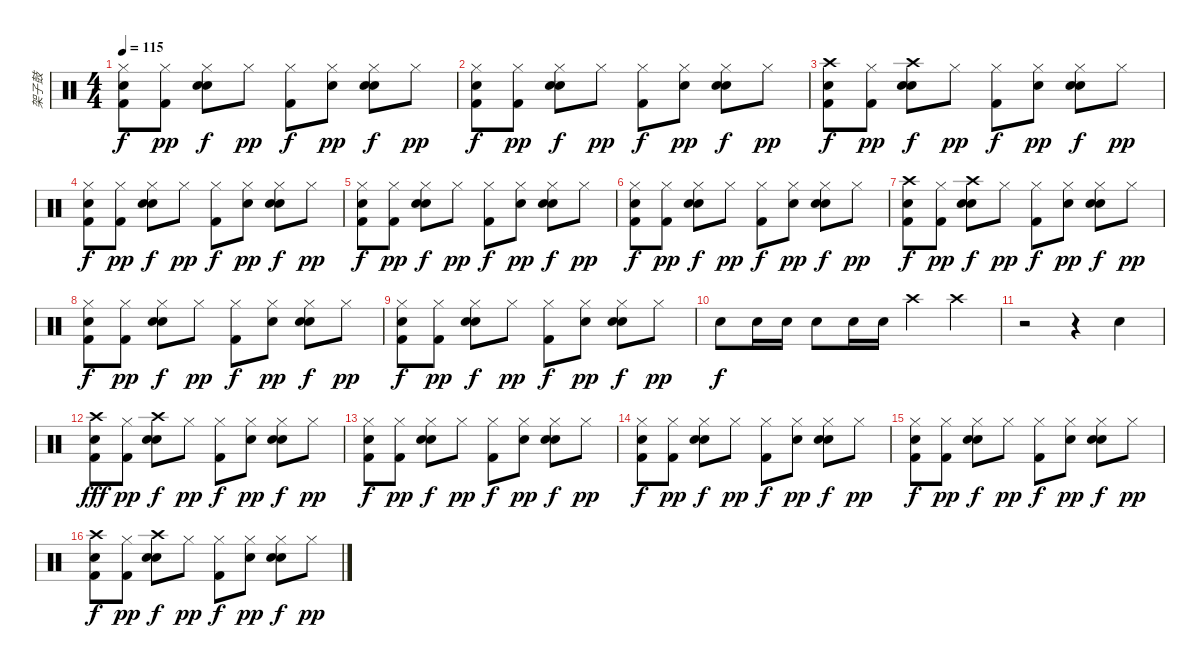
\track ("架子鼓" "架子鼓") {instrument percussion}
\staff {score}
\articulation defaults
\ts (4 4)
\tempo 115
\clef neutral
\ks c
("Hi-Hat (closed)" "Electric Snare (hit)" "Kick (hit) 2").8{dy f} ("Hi-Hat (closed)" "Kick (hit) 2").8{dy pp} ("Hi-Hat (closed)" "Snare (hit) 2" "Electric Snare (hit)").8{dy f} "Hi-Hat (closed)".8{dy pp} ("Hi-Hat (closed)" "Kick (hit) 2").8{dy f} ("Hi-Hat (closed)" "Snare (hit) 2").8{dy pp} ("Hi-Hat (closed)" "Snare (hit) 2" "Electric Snare (hit)").8{dy f} "Hi-Hat (closed)".8{dy pp} |
("Hi-Hat (closed)" "Electric Snare (hit)" "Kick (hit) 2").8{dy f} ("Hi-Hat (closed)" "Kick (hit) 2").8{dy pp} ("Hi-Hat (closed)" "Snare (hit) 2" "Electric Snare (hit)").8{dy f} "Hi-Hat (closed)".8{dy pp} ("Hi-Hat (closed)" "Kick (hit) 2").8{dy f} ("Hi-Hat (closed)" "Snare (hit) 2").8{dy pp} ("Hi-Hat (closed)" "Snare (hit) 2" "Electric Snare (hit)").8{dy f} "Hi-Hat (closed)".8{dy pp} |
("Crash high (hit)" "Electric Snare (hit)" "Kick (hit) 2").8{dy f} ("Hi-Hat (closed)" "Kick (hit) 2").8{dy pp} ("Crash high (hit)" "Snare (hit) 2" "Electric Snare (hit)").8{dy f} "Hi-Hat (closed)".8{dy pp} ("Hi-Hat (closed)" "Kick (hit) 2").8{dy f} ("Hi-Hat (closed)" "Snare (hit) 2").8{dy pp} ("Hi-Hat (closed)" "Snare (hit) 2" "Electric Snare (hit)").8{dy f} "Hi-Hat (closed)".8{dy pp} |
("Hi-Hat (closed)" "Electric Snare (hit)" "Kick (hit) 2").8{dy f} ("Hi-Hat (closed)" "Kick (hit) 2").8{dy pp} ("Hi-Hat (closed)" "Snare (hit) 2" "Electric Snare (hit)").8{dy f} "Hi-Hat (closed)".8{dy pp} ("Hi-Hat (closed)" "Kick (hit) 2").8{dy f} ("Hi-Hat (closed)" "Snare (hit) 2").8{dy pp} ("Hi-Hat (closed)" "Snare (hit) 2" "Electric Snare (hit)").8{dy f} "Hi-Hat (closed)".8{dy pp} |
("Hi-Hat (closed)" "Electric Snare (hit)" "Kick (hit) 2").8{dy f} ("Hi-Hat (closed)" "Kick (hit) 2").8{dy pp} ("Hi-Hat (closed)" "Snare (hit) 2" "Electric Snare (hit)").8{dy f} "Hi-Hat (closed)".8{dy pp} ("Hi-Hat (closed)" "Kick (hit) 2").8{dy f} ("Hi-Hat (closed)" "Snare (hit) 2").8{dy pp} ("Hi-Hat (closed)" "Snare (hit) 2" "Electric Snare (hit)").8{dy f} "Hi-Hat (closed)".8{dy pp} |
("Hi-Hat (closed)" "Electric Snare (hit)" "Kick (hit) 2").8{dy f} ("Hi-Hat (closed)" "Kick (hit) 2").8{dy pp} ("Hi-Hat (closed)" "Snare (hit) 2" "Electric Snare (hit)").8{dy f} "Hi-Hat (closed)".8{dy pp} ("Hi-Hat (closed)" "Kick (hit) 2").8{dy f} ("Hi-Hat (closed)" "Snare (hit) 2").8{dy pp} ("Hi-Hat (closed)" "Snare (hit) 2" "Electric Snare (hit)").8{dy f} "Hi-Hat (closed)".8{dy pp} |
("Crash high (hit)" "Electric Snare (hit)" "Kick (hit) 2").8{dy f} ("Hi-Hat (closed)" "Kick (hit) 2").8{dy pp} ("Crash high (hit)" "Snare (hit) 2" "Electric Snare (hit)").8{dy f} "Hi-Hat (closed)".8{dy pp} ("Hi-Hat (closed)" "Kick (hit) 2").8{dy f} ("Hi-Hat (closed)" "Snare (hit) 2").8{dy pp} ("Hi-Hat (closed)" "Snare (hit) 2" "Electric Snare (hit)").8{dy f} "Hi-Hat (closed)".8{dy pp} |
("Hi-Hat (closed)" "Electric Snare (hit)" "Kick (hit) 2").8{dy f} ("Hi-Hat (closed)" "Kick (hit) 2").8{dy pp} ("Hi-Hat (closed)" "Snare (hit) 2" "Electric Snare (hit)").8{dy f} "Hi-Hat (closed)".8{dy pp} ("Hi-Hat (closed)" "Kick (hit) 2").8{dy f} ("Hi-Hat (closed)" "Snare (hit) 2").8{dy pp} ("Hi-Hat (closed)" "Snare (hit) 2" "Electric Snare (hit)").8{dy f} "Hi-Hat (closed)".8{dy pp} |
("Hi-Hat (closed)" "Electric Snare (hit)" "Kick (hit) 2").8{dy f} ("Hi-Hat (closed)" "Kick (hit) 2").8{dy pp} ("Hi-Hat (closed)" "Snare (hit) 2" "Electric Snare (hit)").8{dy f} "Hi-Hat (closed)".8{dy pp} ("Hi-Hat (closed)" "Kick (hit) 2").8{dy f} ("Hi-Hat (closed)" "Snare (hit) 2").8{dy pp} ("Hi-Hat (closed)" "Snare (hit) 2" "Electric Snare (hit)").8{dy f} "Hi-Hat (closed)".8{dy pp} |
"Electric Snare (hit)".8{dy f} "Electric Snare (hit)".16 "Electric Snare (hit)".16 "Electric Snare (hit)".8 "Electric Snare (hit)".16 "Electric Snare (hit)".16 "Crash high (hit)".4 "Crash high (hit)".4 |
r.2 r.4 "Snare (hit) 2".4 |
("Crash high (hit)" "Electric Snare (hit)" "Kick (hit) 2").8{dy fff} ("Hi-Hat (closed)" "Kick (hit) 2").8{dy pp} ("Crash high (hit)" "Snare (hit) 2" "Electric Snare (hit)").8{dy f} "Hi-Hat (closed)".8{dy pp} ("Hi-Hat (closed)" "Kick (hit) 2").8{dy f} ("Hi-Hat (closed)" "Snare (hit) 2").8{dy pp} ("Hi-Hat (closed)" "Snare (hit) 2" "Electric Snare (hit)").8{dy f} "Hi-Hat (closed)".8{dy pp} |
("Hi-Hat (closed)" "Electric Snare (hit)" "Kick (hit) 2").8{dy f} ("Hi-Hat (closed)" "Kick (hit) 2").8{dy pp} ("Hi-Hat (closed)" "Snare (hit) 2" "Electric Snare (hit)").8{dy f} "Hi-Hat (closed)".8{dy pp} ("Hi-Hat (closed)" "Kick (hit) 2").8{dy f} ("Hi-Hat (closed)" "Snare (hit) 2").8{dy pp} ("Hi-Hat (closed)" "Snare (hit) 2" "Electric Snare (hit)").8{dy f} "Hi-Hat (closed)".8{dy pp} |
("Hi-Hat (closed)" "Electric Snare (hit)" "Kick (hit) 2").8{dy f} ("Hi-Hat (closed)" "Kick (hit) 2").8{dy pp} ("Hi-Hat (closed)" "Snare (hit) 2" "Electric Snare (hit)").8{dy f} "Hi-Hat (closed)".8{dy pp} ("Hi-Hat (closed)" "Kick (hit) 2").8{dy f} ("Hi-Hat (closed)" "Snare (hit) 2").8{dy pp} ("Hi-Hat (closed)" "Snare (hit) 2" "Electric Snare (hit)").8{dy f} "Hi-Hat (closed)".8{dy pp} |
("Hi-Hat (closed)" "Electric Snare (hit)" "Kick (hit) 2").8{dy f} ("Hi-Hat (closed)" "Kick (hit) 2").8{dy pp} ("Hi-Hat (closed)" "Snare (hit) 2" "Electric Snare (hit)").8{dy f} "Hi-Hat (closed)".8{dy pp} ("Hi-Hat (closed)" "Kick (hit) 2").8{dy f} ("Hi-Hat (closed)" "Snare (hit) 2").8{dy pp} ("Hi-Hat (closed)" "Snare (hit) 2" "Electric Snare (hit)").8{dy f} "Hi-Hat (closed)".8{dy pp} |
("Crash high (hit)" "Electric Snare (hit)" "Kick (hit) 2").8{dy f} ("Hi-Hat (closed)" "Kick (hit) 2").8{dy pp} ("Crash high (hit)" "Snare (hit) 2" "Electric Snare (hit)").8{dy f} "Hi-Hat (closed)".8{dy pp} ("Hi-Hat (closed)" "Kick (hit) 2").8{dy f} ("Hi-Hat (closed)" "Snare (hit) 2").8{dy pp} ("Hi-Hat (closed)" "Snare (hit) 2" "Electric Snare (hit)").8{dy f} "Hi-Hat (closed)".8{dy pp}
